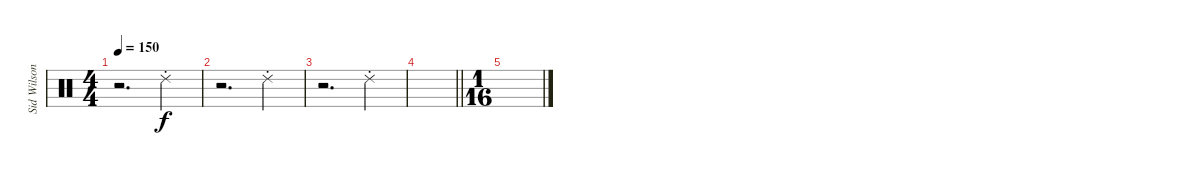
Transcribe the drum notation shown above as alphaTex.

\track ("Sid Wilson" "Sid Wilson") {instrument percussion}
\staff {score}
\articulation defaults
\ts (4 4)
\tempo 150
\clef neutral
\ks c
r.2{d dy f} "Ride (choke) 2".4 |
r.2{d} "Ride (choke) 2".4 |
r.2{d} "Ride (choke) 2".4 |
\barLineRight lightlight
|
\ts (1 16)
